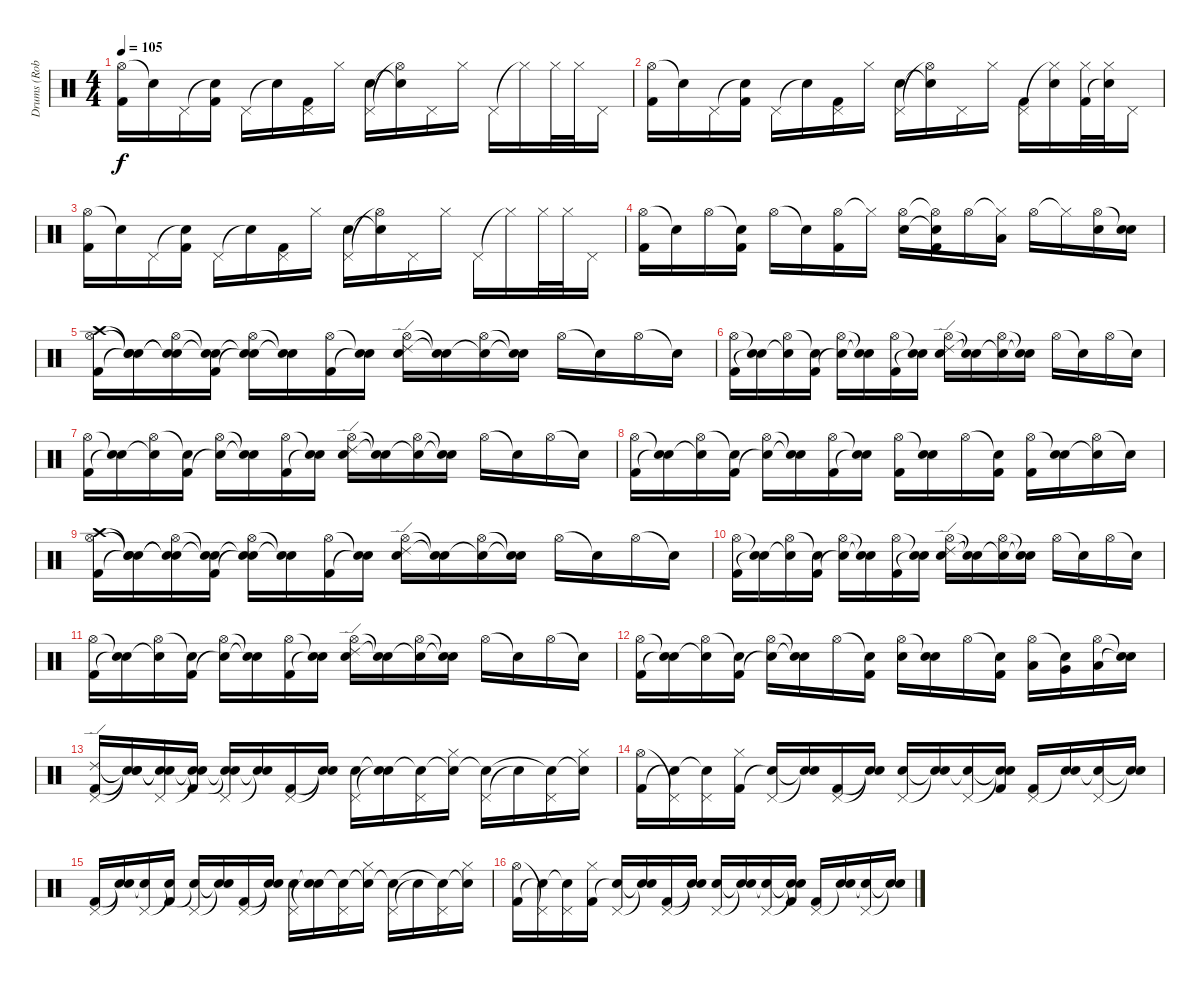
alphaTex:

\track ("Drums (Rob Bourdon)" "Drums (Rob") {instrument percussion}
\staff {score}
\articulation defaults
\ts (4 4)
\tempo 105
\clef neutral
\ks c
("Hi-Hat (open)" "Kick (hit) 2").16{dy f} "Snare (hit)"{t}.16 "Pedal Hi-Hat (hit)".16 ("Snare (hit)"{t} "Kick (hit) 2").16 "Pedal Hi-Hat (hit)".16 "Snare (hit)"{t}.16 ("Pedal Hi-Hat (hit)" "Kick (hit) 2").16 "Hi-Hat (closed)".16 ("Pedal Hi-Hat (hit)" "Electric Snare (hit)").16 ("Hi-Hat (open)"{t} "Snare (hit)"{t}).16 "Pedal Hi-Hat (hit)".16 "Hi-Hat (closed)".16 "Pedal Hi-Hat (hit)".16 "Hi-Hat (closed)"{t}.16 "Hi-Hat (closed)".32 "Hi-Hat (closed)".32 "Pedal Hi-Hat (hit)".16 |
("Hi-Hat (open)" "Kick (hit) 2").16 "Snare (hit)"{t}.16 "Pedal Hi-Hat (hit)".16 ("Snare (hit)"{t} "Kick (hit) 2").16 "Pedal Hi-Hat (hit)".16 "Snare (hit)"{t}.16 ("Pedal Hi-Hat (hit)" "Kick (hit) 2").16 "Hi-Hat (closed)".16 ("Pedal Hi-Hat (hit)" "Electric Snare (hit)").16 ("Hi-Hat (open)"{t} "Snare (hit)"{t}).16 "Pedal Hi-Hat (hit)".16 "Hi-Hat (closed)".16 ("Pedal Hi-Hat (hit)" "Kick (hit) 2").16 ("Hi-Hat (closed)"{t} "Electric Snare (hit)").16 ("Hi-Hat (closed)" "Kick (hit) 2").32 ("Hi-Hat (closed)" "Snare (hit)"{t}).32 "Pedal Hi-Hat (hit)".16 |
("Hi-Hat (open)" "Kick (hit) 2").16 "Snare (hit)"{t}.16 "Pedal Hi-Hat (hit)".16 ("Snare (hit)"{t} "Kick (hit) 2").16 "Pedal Hi-Hat (hit)".16 "Snare (hit)"{t}.16 ("Pedal Hi-Hat (hit)" "Kick (hit) 2").16 "Hi-Hat (closed)".16 ("Pedal Hi-Hat (hit)" "Electric Snare (hit)").16 ("Hi-Hat (open)"{t} "Snare (hit)"{t}).16 "Pedal Hi-Hat (hit)".16 "Hi-Hat (closed)".16 "Pedal Hi-Hat (hit)".16 "Hi-Hat (closed)"{t}.16 "Hi-Hat (closed)".32 "Hi-Hat (closed)".32 "Pedal Hi-Hat (hit)".16 |
("Hi-Hat (open)" "Kick (hit) 2").16 "Snare (hit)"{t}.16 "Hi-Hat (open)".16 ("Snare (hit)"{t} "Kick (hit) 2").16 "Hi-Hat (open)".16 "Snare (hit)"{t}.16 ("Hi-Hat (open)" "Kick (hit) 2").16 "Hi-Hat (closed)"{t}.16 ("Hi-Hat (open)" "Electric Snare (hit)").16 ("Hi-Hat (open)"{t} "Snare (hit)"{t} "Kick (hit) 2").16 "Hi-Hat (open)".16 ("Hi-Hat (closed)"{t} "Low Tom (hit)").16 "Hi-Hat (open)".16 "Hi-Hat (closed)"{t}.16 ("Hi-Hat (open)" "Electric Snare (hit)").16 ("Snare (hit)"{t} "Electric Snare (hit)").16 |
("Crash high (hit)" "Hi-Hat (open)" "Kick (hit) 2").16 ("Snare (hit)"{t} "Snare (hit)"{t} "Snare (hit)"{t}).16 ("Snare (hit)"{t} "Hi-Hat (open)" "Snare (hit)"{t}).16 ("Snare (hit)"{t} "Snare (hit)"{t} "Kick (hit) 2").16 ("Snare (hit)"{t} "Hi-Hat (open)" "Snare (hit)"{t}).16 ("Snare (hit)"{t} "Snare (hit)"{t}).16 ("Hi-Hat (open)" "Kick (hit) 2").16 ("Snare (hit)"{t} "Snare (hit)"{t}).16 ("Ride (edge) 2" "Hi-Hat (open)" "Electric Snare (hit)").16 ("Snare (hit)"{t} "Snare (hit)"{t}).16 ("Hi-Hat (open)" "Snare (hit)"{t}).16 ("Snare (hit)"{t} "Snare (hit)"{t}).16 "Hi-Hat (open)".16 "Snare (hit)"{t}.16 "Hi-Hat (open)".16 "Snare (hit)"{t}.16 |
("Hi-Hat (open)" "Kick (hit) 2").16 ("Snare (hit)"{t} "Snare (hit)"{t}).16 ("Hi-Hat (open)" "Snare (hit)"{t}).16 ("Snare (hit)"{t} "Kick (hit) 2").16 ("Hi-Hat (open)" "Snare (hit)"{t}).16 ("Snare (hit)"{t} "Snare (hit)"{t}).16 ("Hi-Hat (open)" "Kick (hit) 2").16 ("Snare (hit)"{t} "Snare (hit)"{t}).16 ("Ride (edge) 2" "Hi-Hat (open)" "Electric Snare (hit)").16 ("Snare (hit)"{t} "Snare (hit)"{t}).16 ("Hi-Hat (open)" "Snare (hit)"{t}).16 ("Snare (hit)"{t} "Snare (hit)"{t}).16 "Hi-Hat (open)".16 "Snare (hit)"{t}.16 "Hi-Hat (open)".16 "Snare (hit)"{t}.16 |
("Hi-Hat (open)" "Kick (hit) 2").16 ("Snare (hit)"{t} "Snare (hit)"{t}).16 ("Hi-Hat (open)" "Snare (hit)"{t}).16 ("Snare (hit)"{t} "Kick (hit) 2").16 ("Hi-Hat (open)" "Snare (hit)"{t}).16 ("Snare (hit)"{t} "Snare (hit)"{t}).16 ("Hi-Hat (open)" "Kick (hit) 2").16 ("Snare (hit)"{t} "Snare (hit)"{t}).16 ("Ride (edge) 2" "Hi-Hat (open)" "Electric Snare (hit)").16 ("Snare (hit)"{t} "Snare (hit)"{t}).16 ("Hi-Hat (open)" "Snare (hit)"{t}).16 ("Snare (hit)"{t} "Snare (hit)"{t}).16 "Hi-Hat (open)".16 "Snare (hit)"{t}.16 "Hi-Hat (open)".16 "Snare (hit)"{t}.16 |
("Hi-Hat (open)" "Kick (hit) 2").16 ("Snare (hit)"{t} "Snare (hit)"{t}).16 ("Hi-Hat (open)" "Snare (hit)"{t}).16 ("Snare (hit)"{t} "Kick (hit) 2").16 ("Hi-Hat (open)" "Snare (hit)"{t}).16 ("Snare (hit)"{t} "Snare (hit)"{t}).16 ("Hi-Hat (open)" "Kick (hit) 2").16 ("Snare (hit)"{t} "Snare (hit)"{t}).16 ("Hi-Hat (open)" "Kick (hit) 2").16 ("Snare (hit)"{t} "Electric Snare (hit)").16 "Hi-Hat (open)".16 ("Snare (hit)"{t} "Kick (hit) 2").16 ("Hi-Hat (open)" "Kick (hit) 2").16 ("Snare (hit)"{t} "Electric Snare (hit)").16 ("Hi-Hat (open)" "Electric Snare (hit)"{t}).16 "Snare (hit)"{t}.16 |
("Crash high (hit)" "Hi-Hat (open)" "Kick (hit) 2").16 ("Snare (hit)"{t} "Snare (hit)"{t} "Snare (hit)"{t}).16 ("Snare (hit)"{t} "Hi-Hat (open)" "Snare (hit)"{t}).16 ("Snare (hit)"{t} "Snare (hit)"{t} "Kick (hit) 2").16 ("Snare (hit)"{t} "Hi-Hat (open)" "Snare (hit)"{t}).16 ("Snare (hit)"{t} "Snare (hit)"{t}).16 ("Hi-Hat (open)" "Kick (hit) 2").16 ("Snare (hit)"{t} "Snare (hit)"{t}).16 ("Ride (edge) 2" "Hi-Hat (open)" "Electric Snare (hit)").16 ("Snare (hit)"{t} "Snare (hit)"{t}).16 ("Hi-Hat (open)" "Snare (hit)"{t}).16 ("Snare (hit)"{t} "Snare (hit)"{t}).16 "Hi-Hat (open)".16 "Snare (hit)"{t}.16 "Hi-Hat (open)".16 "Snare (hit)"{t}.16 |
("Hi-Hat (open)" "Kick (hit) 2").16 ("Snare (hit)"{t} "Snare (hit)"{t}).16 ("Hi-Hat (open)" "Snare (hit)"{t}).16 ("Snare (hit)"{t} "Kick (hit) 2").16 ("Hi-Hat (open)" "Snare (hit)"{t}).16 ("Snare (hit)"{t} "Snare (hit)"{t}).16 ("Hi-Hat (open)" "Kick (hit) 2").16 ("Snare (hit)"{t} "Snare (hit)"{t}).16 ("Ride (edge) 2" "Hi-Hat (open)" "Electric Snare (hit)").16 ("Snare (hit)"{t} "Snare (hit)"{t}).16 ("Hi-Hat (open)" "Snare (hit)"{t}).16 ("Snare (hit)"{t} "Snare (hit)"{t}).16 "Hi-Hat (open)".16 "Snare (hit)"{t}.16 "Hi-Hat (open)".16 "Snare (hit)"{t}.16 |
("Hi-Hat (open)" "Kick (hit) 2").16 ("Snare (hit)"{t} "Snare (hit)"{t}).16 ("Hi-Hat (open)" "Snare (hit)"{t}).16 ("Snare (hit)"{t} "Kick (hit) 2").16 ("Hi-Hat (open)" "Snare (hit)"{t}).16 ("Snare (hit)"{t} "Snare (hit)"{t}).16 ("Hi-Hat (open)" "Kick (hit) 2").16 ("Snare (hit)"{t} "Snare (hit)"{t}).16 ("Ride (edge) 2" "Hi-Hat (open)" "Electric Snare (hit)").16 ("Snare (hit)"{t} "Snare (hit)"{t}).16 ("Hi-Hat (open)" "Snare (hit)"{t}).16 ("Snare (hit)"{t} "Snare (hit)"{t}).16 "Hi-Hat (open)".16 "Snare (hit)"{t}.16 "Hi-Hat (open)".16 "Snare (hit)"{t}.16 |
("Hi-Hat (open)" "Kick (hit) 2").16 ("Snare (hit)"{t} "Snare (hit)"{t}).16 ("Hi-Hat (open)" "Snare (hit)"{t}).16 ("Snare (hit)"{t} "Kick (hit) 2").16 ("Hi-Hat (open)" "Snare (hit)"{t}).16 ("Snare (hit)"{t} "Snare (hit)"{t}).16 "Hi-Hat (open)".16 ("Snare (hit)"{t} "Kick (hit) 2").16 ("Hi-Hat (open)" "Electric Snare (hit)").16 ("Snare (hit)"{t} "Electric Snare (hit)").16 "Hi-Hat (open)".16 ("Snare (hit)"{t} "Kick (hit) 2").16 ("Hi-Hat (open)" "Low Tom (hit)").16 ("Snare (hit)"{t} "Very Low Tom (hit)").16 ("Hi-Hat (open)" "Low Floor Tom (hit)").16 ("Snare (hit)"{t} "Snare (hit)"{t}).16 |
("Ride (edge) 2" "Pedal Hi-Hat (hit)" "Kick (hit) 2").16 ("Snare (hit)"{t} "Snare (hit)"{t} "Snare (hit)"{t}).16 ("Snare (hit)"{t} "Pedal Hi-Hat (hit)" "Snare (hit)"{t}).16 ("Snare (hit)"{t} "Snare (hit)"{t} "Kick (hit) 2").16 ("Snare (hit)"{t} "Pedal Hi-Hat (hit)" "Snare (hit)"{t}).16 ("Snare (hit)"{t} "Snare (hit)"{t}).16 ("Pedal Hi-Hat (hit)" "Kick (hit) 2").16 ("Snare (hit)"{t} "Snare (hit)"{t}).16 ("Pedal Hi-Hat (hit)" "Electric Snare (hit)").16 ("Snare (hit)"{t} "Snare (hit)"{t}).16 ("Pedal Hi-Hat (hit)" "Snare (hit)"{t}).16 ("Hi-Hat (closed)" "Snare (hit)"{t}).16 ("Pedal Hi-Hat (hit)" "Snare (hit)"{t}).16 "Snare (hit)"{t}.16 ("Pedal Hi-Hat (hit)" "Snare (hit)"{t}).16 ("Hi-Hat (closed)" "Snare (hit)"{t}).16 |
("Hi-Hat (open)" "Kick (hit) 2").16 ("Pedal Hi-Hat (hit)"{t} "Snare (hit)"{t}).16 ("Pedal Hi-Hat (hit)" "Snare (hit)"{t}).16 ("Hi-Hat (closed)" "Kick (hit) 2").16 ("Pedal Hi-Hat (hit)" "Snare (hit)"{t}).16 ("Snare (hit)"{t} "Snare (hit)"{t}).16 ("Pedal Hi-Hat (hit)" "Kick (hit) 2").16 ("Snare (hit)"{t} "Snare (hit)"{t}).16 ("Pedal Hi-Hat (hit)" "Electric Snare (hit)").16 ("Snare (hit)"{t} "Snare (hit)"{t}).16 ("Pedal Hi-Hat (hit)" "Snare (hit)"{t}).16 ("Snare (hit)"{t} "Snare (hit)"{t} "Kick (hit) 2").16 ("Pedal Hi-Hat (hit)" "Kick (hit) 2").16 ("Snare (hit)"{t} "Electric Snare (hit)").16 ("Pedal Hi-Hat (hit)" "Electric Snare (hit)"{t}).16 ("Snare (hit)"{t} "Snare (hit)"{t}).16 |
("Pedal Hi-Hat (hit)" "Kick (hit) 2").16 ("Snare (hit)"{t} "Snare (hit)"{t}).16 ("Pedal Hi-Hat (hit)" "Snare (hit)"{t}).16 ("Snare (hit)"{t} "Kick (hit) 2").16 ("Pedal Hi-Hat (hit)" "Snare (hit)"{t}).16 ("Snare (hit)"{t} "Snare (hit)"{t}).16 ("Pedal Hi-Hat (hit)" "Kick (hit) 2").16 ("Snare (hit)"{t} "Snare (hit)"{t}).16 ("Pedal Hi-Hat (hit)" "Electric Snare (hit)").16 ("Snare (hit)"{t} "Snare (hit)"{t}).16 ("Pedal Hi-Hat (hit)" "Snare (hit)"{t}).16 ("Hi-Hat (closed)" "Snare (hit)"{t}).16 ("Pedal Hi-Hat (hit)" "Snare (hit)"{t}).16 "Snare (hit)"{t}.16 ("Pedal Hi-Hat (hit)" "Snare (hit)"{t}).16 ("Hi-Hat (closed)" "Snare (hit)"{t}).16 |
("Hi-Hat (open)" "Kick (hit) 2").16 ("Pedal Hi-Hat (hit)"{t} "Snare (hit)"{t}).16 ("Pedal Hi-Hat (hit)" "Snare (hit)"{t}).16 ("Hi-Hat (closed)" "Kick (hit) 2").16 ("Pedal Hi-Hat (hit)" "Snare (hit)"{t}).16 ("Snare (hit)"{t} "Snare (hit)"{t}).16 ("Pedal Hi-Hat (hit)" "Kick (hit) 2").16 ("Snare (hit)"{t} "Snare (hit)"{t}).16 ("Pedal Hi-Hat (hit)" "Electric Snare (hit)").16 ("Snare (hit)"{t} "Snare (hit)"{t}).16 ("Pedal Hi-Hat (hit)" "Snare (hit)"{t}).16 ("Snare (hit)"{t} "Snare (hit)"{t} "Kick (hit) 2").16 ("Pedal Hi-Hat (hit)" "Kick (hit) 2").16 ("Snare (hit)"{t} "Electric Snare (hit)").16 ("Pedal Hi-Hat (hit)" "Electric Snare (hit)"{t}).16 ("Snare (hit)"{t} "Snare (hit)"{t}).16
